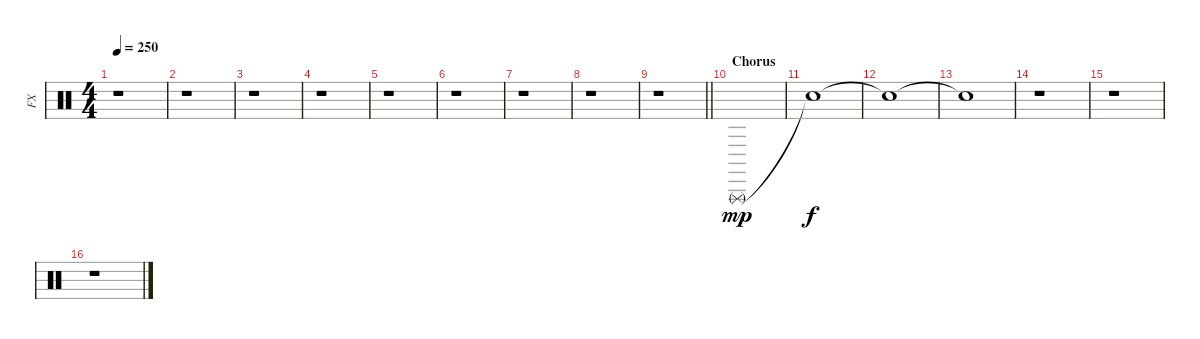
\track ("FX" "FX") {instrument percussion}
\staff {score}
\articulation defaults
\ts (4 4)
\tempo 250
\clef neutral
\ks c
r.1{dy f} |
r.1 |
r.1 |
r.1 |
r.1 |
r.1 |
r.1 |
r.1 |
\barLineRight lightlight
r.1 |
\section ("" "Chorus")
"Triangle (rnute)".1{dy mp} |
"Snare (hit)"{t}.1{dy f} |
"Snare (hit)"{t}.1 |
"Snare (hit)"{t}.1 |
r.1 |
r.1 |
r.1
